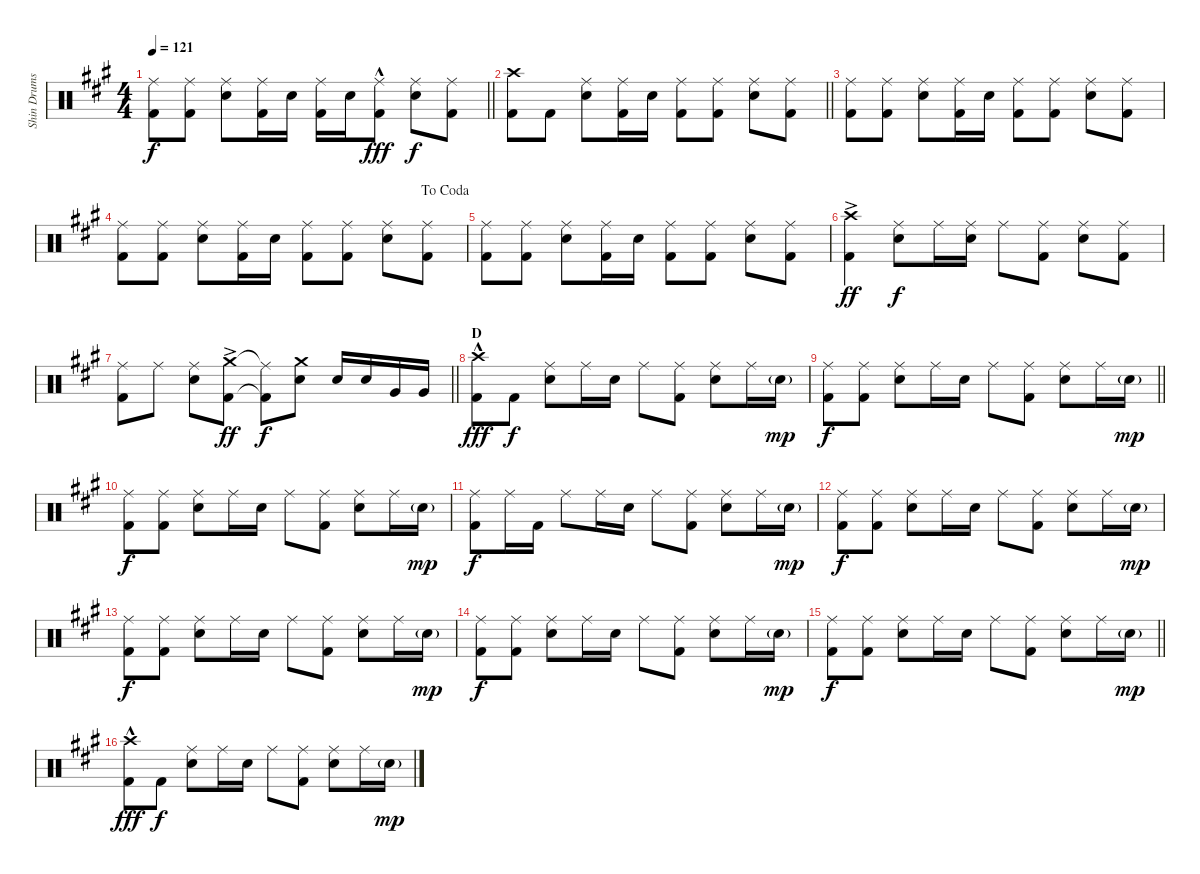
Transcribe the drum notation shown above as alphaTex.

\track ("Shin Drums" "Shin Drums") {instrument percussion}
\staff {score}
\articulation defaults
\ts (4 4)
\tempo 121
\clef neutral
\barLineRight lightlight
\ks a
("Ride (middle)" "Kick (hit) 2").8{dy f} ("Ride (middle)" "Kick (hit) 2").8 ("Ride (middle)" "Snare (hit) 2").8 ("Ride (middle)" "Kick (hit) 2").16 "Snare (hit) 2".16 ("Ride (middle)" "Kick (hit) 2").16 "Snare (hit) 2".16 ("Ride (middle)"{hac} "Kick (hit) 2"{hac}).8{dy fff} ("Ride (middle)" "Snare (hit) 2").8{dy f} ("Ride (middle)" "Kick (hit) 2").8 |
\section ("" "")
\barLineRight lightlight
("Crash high (hit)" "Kick (hit) 2").8 "Kick (hit) 2".8 ("Ride (middle)" "Snare (hit) 2").8 ("Ride (middle)" "Kick (hit) 2").16 "Snare (hit) 2".16 ("Ride (middle)" "Kick (hit) 2").8 ("Ride (middle)" "Kick (hit) 2").8 ("Ride (middle)" "Snare (hit) 2").8 ("Ride (middle)" "Kick (hit) 2").8 |
("Ride (middle)" "Kick (hit) 2").8 ("Ride (middle)" "Kick (hit) 2").8 ("Ride (middle)" "Snare (hit) 2").8 ("Ride (middle)" "Kick (hit) 2").16 "Snare (hit) 2".16 ("Ride (middle)" "Kick (hit) 2").8 ("Ride (middle)" "Kick (hit) 2").8 ("Ride (middle)" "Snare (hit) 2").8 ("Ride (middle)" "Kick (hit) 2").8 |
\jump dacoda
("Ride (middle)" "Kick (hit) 2").8 ("Ride (middle)" "Kick (hit) 2").8 ("Ride (middle)" "Snare (hit) 2").8 ("Ride (middle)" "Kick (hit) 2").16 "Snare (hit) 2".16 ("Ride (middle)" "Kick (hit) 2").8 ("Ride (middle)" "Kick (hit) 2").8 ("Ride (middle)" "Snare (hit) 2").8 ("Ride (middle)" "Kick (hit) 2").8 |
("Ride (middle)" "Kick (hit) 2").8 ("Ride (middle)" "Kick (hit) 2").8 ("Ride (middle)" "Snare (hit) 2").8 ("Ride (middle)" "Kick (hit) 2").16 "Snare (hit) 2".16 ("Ride (middle)" "Kick (hit) 2").8 ("Ride (middle)" "Kick (hit) 2").8 ("Ride (middle)" "Snare (hit) 2").8 ("Ride (middle)" "Kick (hit) 2").8 |
("Crash high (hit)"{ac} "Kick (hit) 2"{ac}).4{dy ff} ("Ride (middle)" "Snare (hit) 2").8{dy f} "Ride (middle)".16 ("Ride (middle)" "Snare (hit) 2").16 "Ride (middle)".8 ("Ride (middle)" "Kick (hit) 2").8 ("Ride (middle)" "Snare (hit) 2").8 ("Ride (middle)" "Kick (hit) 2").8 |
\barLineRight lightlight
("Ride (middle)" "Kick (hit) 2").8 "Ride (middle)".8 ("Ride (middle)" "Snare (hit) 2").8 ("Crash medium (hit)"{ac} "Kick (hit) 2"{ac}).8{dy ff} ("Ride (middle)"{t} "Kick (hit) 2"{t}).8{dy f} ("Crash medium (hit)" "Snare (hit) 2").8 "Snare (hit) 2".16 "Snare (hit) 2".16 "Very Low Tom (hit)".16 "Very Low Tom (hit)".16 |
\section ("" "D")
("Crash high (hit)"{hac} "Kick (hit) 2"{hac}).8{dy fff} "Kick (hit) 2".8{dy f} ("Ride (middle)" "Snare (hit) 2").8 "Ride (middle)".16 "Snare (hit) 2".16 "Ride (middle)".8 ("Ride (middle)" "Kick (hit) 2").8 ("Ride (middle)" "Snare (hit) 2").8 "Ride (middle)".16 "Snare (hit) 2"{g}.16{dy mp} |
\barLineRight lightlight
("Ride (middle)" "Kick (hit) 2").8{dy f} ("Ride (middle)" "Kick (hit) 2").8 ("Ride (middle)" "Snare (hit) 2").8 "Ride (middle)".16 "Snare (hit) 2".16 "Ride (middle)".8 ("Ride (middle)" "Kick (hit) 2").8 ("Ride (middle)" "Snare (hit) 2").8 "Ride (middle)".16 "Snare (hit) 2"{g}.16{dy mp} |
\section ("" "")
("Ride (middle)" "Kick (hit) 2").8{dy f} ("Ride (middle)" "Kick (hit) 2").8 ("Ride (middle)" "Snare (hit) 2").8 "Ride (middle)".16 "Snare (hit) 2".16 "Ride (middle)".8 ("Ride (middle)" "Kick (hit) 2").8 ("Ride (middle)" "Snare (hit) 2").8 "Ride (middle)".16 "Snare (hit) 2"{g}.16{dy mp} |
("Ride (middle)" "Kick (hit) 2").8{dy f} "Ride (middle)".16 "Kick (hit) 2".16 "Ride (middle)".8 "Ride (middle)".16 "Snare (hit) 2".16 "Ride (middle)".8 ("Ride (middle)" "Kick (hit) 2").8 ("Ride (middle)" "Snare (hit) 2").8 "Ride (middle)".16 "Snare (hit) 2"{g}.16{dy mp} |
("Ride (middle)" "Kick (hit) 2").8{dy f} ("Ride (middle)" "Kick (hit) 2").8 ("Ride (middle)" "Snare (hit) 2").8 "Ride (middle)".16 "Snare (hit) 2".16 "Ride (middle)".8 ("Ride (middle)" "Kick (hit) 2").8 ("Ride (middle)" "Snare (hit) 2").8 "Ride (middle)".16 "Snare (hit) 2"{g}.16{dy mp} |
("Ride (middle)" "Kick (hit) 2").8{dy f} ("Ride (middle)" "Kick (hit) 2").8 ("Ride (middle)" "Snare (hit) 2").8 "Ride (middle)".16 "Snare (hit) 2".16 "Ride (middle)".8 ("Ride (middle)" "Kick (hit) 2").8 ("Ride (middle)" "Snare (hit) 2").8 "Ride (middle)".16 "Snare (hit) 2"{g}.16{dy mp} |
("Ride (middle)" "Kick (hit) 2").8{dy f} ("Ride (middle)" "Kick (hit) 2").8 ("Ride (middle)" "Snare (hit) 2").8 "Ride (middle)".16 "Snare (hit) 2".16 "Ride (middle)".8 ("Ride (middle)" "Kick (hit) 2").8 ("Ride (middle)" "Snare (hit) 2").8 "Ride (middle)".16 "Snare (hit) 2"{g}.16{dy mp} |
\barLineRight lightlight
("Ride (middle)" "Kick (hit) 2").8{dy f} ("Ride (middle)" "Kick (hit) 2").8 ("Ride (middle)" "Snare (hit) 2").8 "Ride (middle)".16 "Snare (hit) 2".16 "Ride (middle)".8 ("Ride (middle)" "Kick (hit) 2").8 ("Ride (middle)" "Snare (hit) 2").8 "Ride (middle)".16 "Snare (hit) 2"{g}.16{dy mp} |
\section ("" "")
("Crash high (hit)"{hac} "Kick (hit) 2"{hac}).8{dy fff} "Kick (hit) 2".8{dy f} ("Ride (middle)" "Snare (hit) 2").8 "Ride (middle)".16 "Snare (hit) 2".16 "Ride (middle)".8 ("Ride (middle)" "Kick (hit) 2").8 ("Ride (middle)" "Snare (hit) 2").8 "Ride (middle)".16 "Snare (hit) 2"{g}.16{dy mp}
